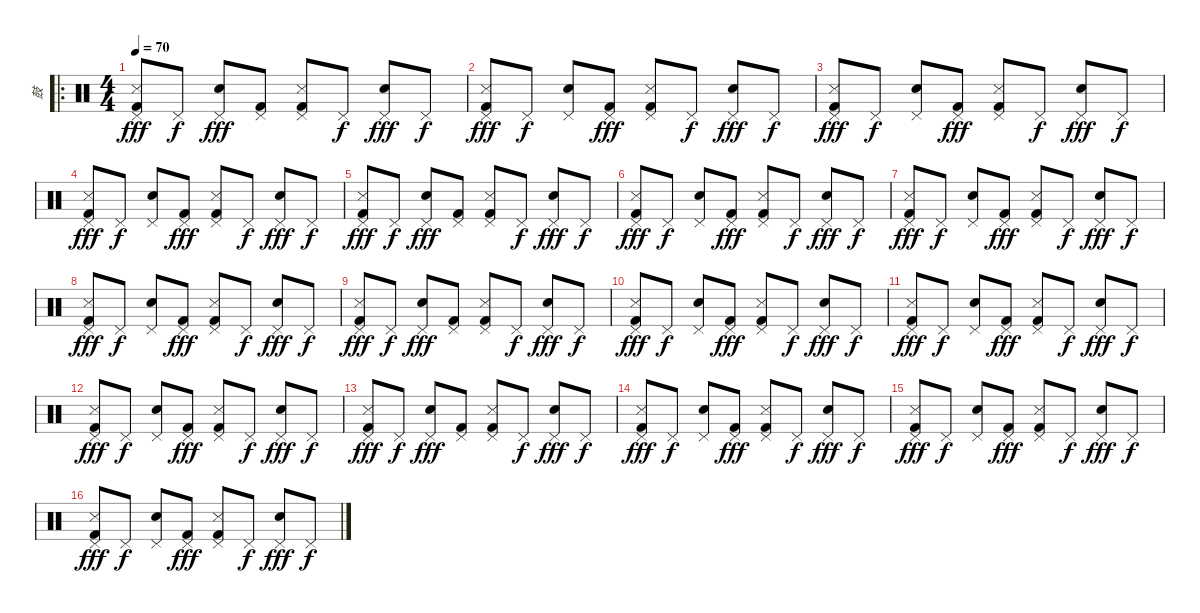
\track ("鼓" "鼓") {instrument percussion}
\staff {score}
\articulation defaults
\ro
\ts (4 4)
\tempo 70
\clef neutral
\ks c
("Snare (side stick) 3" "Pedal Hi-Hat (hit)" "Kick (hit) 2").8{dy fff} "Pedal Hi-Hat (hit)".8{dy f} ("Hand Clap (hit)" "Pedal Hi-Hat (hit)").8{dy fff} ("Pedal Hi-Hat (hit)" "Kick (hit) 2").8 ("Snare (side stick) 3" "Pedal Hi-Hat (hit)" "Kick (hit) 2").8 "Pedal Hi-Hat (hit)".8{dy f} ("Hand Clap (hit)" "Pedal Hi-Hat (hit)").8{dy fff} "Pedal Hi-Hat (hit)".8{dy f} |
("Snare (side stick) 3" "Pedal Hi-Hat (hit)" "Kick (hit) 2").8{dy fff} "Pedal Hi-Hat (hit)".8{dy f} ("Hand Clap (hit)" "Pedal Hi-Hat (hit)").8 ("Pedal Hi-Hat (hit)" "Kick (hit) 2").8{dy fff} ("Snare (side stick) 3" "Pedal Hi-Hat (hit)" "Kick (hit) 2").8 "Pedal Hi-Hat (hit)".8{dy f} ("Hand Clap (hit)" "Pedal Hi-Hat (hit)").8{dy fff} "Pedal Hi-Hat (hit)".8{dy f} |
("Snare (side stick) 3" "Pedal Hi-Hat (hit)" "Kick (hit) 2").8{dy fff} "Pedal Hi-Hat (hit)".8{dy f} ("Hand Clap (hit)" "Pedal Hi-Hat (hit)").8 ("Pedal Hi-Hat (hit)" "Kick (hit) 2").8{dy fff} ("Snare (side stick) 3" "Pedal Hi-Hat (hit)" "Kick (hit) 2").8 "Pedal Hi-Hat (hit)".8{dy f} ("Hand Clap (hit)" "Pedal Hi-Hat (hit)").8{dy fff} "Pedal Hi-Hat (hit)".8{dy f} |
("Snare (side stick) 3" "Pedal Hi-Hat (hit)" "Kick (hit) 2").8{dy fff} "Pedal Hi-Hat (hit)".8{dy f} ("Hand Clap (hit)" "Pedal Hi-Hat (hit)").8 ("Pedal Hi-Hat (hit)" "Kick (hit) 2").8{dy fff} ("Snare (side stick) 3" "Pedal Hi-Hat (hit)" "Kick (hit) 2").8 "Pedal Hi-Hat (hit)".8{dy f} ("Hand Clap (hit)" "Pedal Hi-Hat (hit)").8{dy fff} "Pedal Hi-Hat (hit)".8{dy f} |
("Snare (side stick) 3" "Pedal Hi-Hat (hit)" "Kick (hit) 2").8{dy fff} "Pedal Hi-Hat (hit)".8{dy f} ("Hand Clap (hit)" "Pedal Hi-Hat (hit)").8{dy fff} ("Pedal Hi-Hat (hit)" "Kick (hit) 2").8 ("Snare (side stick) 3" "Pedal Hi-Hat (hit)" "Kick (hit) 2").8 "Pedal Hi-Hat (hit)".8{dy f} ("Hand Clap (hit)" "Pedal Hi-Hat (hit)").8{dy fff} "Pedal Hi-Hat (hit)".8{dy f} |
("Snare (side stick) 3" "Pedal Hi-Hat (hit)" "Kick (hit) 2").8{dy fff} "Pedal Hi-Hat (hit)".8{dy f} ("Hand Clap (hit)" "Pedal Hi-Hat (hit)").8 ("Pedal Hi-Hat (hit)" "Kick (hit) 2").8{dy fff} ("Snare (side stick) 3" "Pedal Hi-Hat (hit)" "Kick (hit) 2").8 "Pedal Hi-Hat (hit)".8{dy f} ("Hand Clap (hit)" "Pedal Hi-Hat (hit)").8{dy fff} "Pedal Hi-Hat (hit)".8{dy f} |
("Snare (side stick) 3" "Pedal Hi-Hat (hit)" "Kick (hit) 2").8{dy fff} "Pedal Hi-Hat (hit)".8{dy f} ("Hand Clap (hit)" "Pedal Hi-Hat (hit)").8 ("Pedal Hi-Hat (hit)" "Kick (hit) 2").8{dy fff} ("Snare (side stick) 3" "Pedal Hi-Hat (hit)" "Kick (hit) 2").8 "Pedal Hi-Hat (hit)".8{dy f} ("Hand Clap (hit)" "Pedal Hi-Hat (hit)").8{dy fff} "Pedal Hi-Hat (hit)".8{dy f} |
("Snare (side stick) 3" "Pedal Hi-Hat (hit)" "Kick (hit) 2").8{dy fff} "Pedal Hi-Hat (hit)".8{dy f} ("Hand Clap (hit)" "Pedal Hi-Hat (hit)").8 ("Pedal Hi-Hat (hit)" "Kick (hit) 2").8{dy fff} ("Snare (side stick) 3" "Pedal Hi-Hat (hit)" "Kick (hit) 2").8 "Pedal Hi-Hat (hit)".8{dy f} ("Hand Clap (hit)" "Pedal Hi-Hat (hit)").8{dy fff} "Pedal Hi-Hat (hit)".8{dy f} |
("Snare (side stick) 3" "Pedal Hi-Hat (hit)" "Kick (hit) 2").8{dy fff} "Pedal Hi-Hat (hit)".8{dy f} ("Hand Clap (hit)" "Pedal Hi-Hat (hit)").8{dy fff} ("Pedal Hi-Hat (hit)" "Kick (hit) 2").8 ("Snare (side stick) 3" "Pedal Hi-Hat (hit)" "Kick (hit) 2").8 "Pedal Hi-Hat (hit)".8{dy f} ("Hand Clap (hit)" "Pedal Hi-Hat (hit)").8{dy fff} "Pedal Hi-Hat (hit)".8{dy f} |
("Snare (side stick) 3" "Pedal Hi-Hat (hit)" "Kick (hit) 2").8{dy fff} "Pedal Hi-Hat (hit)".8{dy f} ("Hand Clap (hit)" "Pedal Hi-Hat (hit)").8 ("Pedal Hi-Hat (hit)" "Kick (hit) 2").8{dy fff} ("Snare (side stick) 3" "Pedal Hi-Hat (hit)" "Kick (hit) 2").8 "Pedal Hi-Hat (hit)".8{dy f} ("Hand Clap (hit)" "Pedal Hi-Hat (hit)").8{dy fff} "Pedal Hi-Hat (hit)".8{dy f} |
("Snare (side stick) 3" "Pedal Hi-Hat (hit)" "Kick (hit) 2").8{dy fff} "Pedal Hi-Hat (hit)".8{dy f} ("Hand Clap (hit)" "Pedal Hi-Hat (hit)").8 ("Pedal Hi-Hat (hit)" "Kick (hit) 2").8{dy fff} ("Snare (side stick) 3" "Pedal Hi-Hat (hit)" "Kick (hit) 2").8 "Pedal Hi-Hat (hit)".8{dy f} ("Hand Clap (hit)" "Pedal Hi-Hat (hit)").8{dy fff} "Pedal Hi-Hat (hit)".8{dy f} |
("Snare (side stick) 3" "Pedal Hi-Hat (hit)" "Kick (hit) 2").8{dy fff} "Pedal Hi-Hat (hit)".8{dy f} ("Hand Clap (hit)" "Pedal Hi-Hat (hit)").8 ("Pedal Hi-Hat (hit)" "Kick (hit) 2").8{dy fff} ("Snare (side stick) 3" "Pedal Hi-Hat (hit)" "Kick (hit) 2").8 "Pedal Hi-Hat (hit)".8{dy f} ("Hand Clap (hit)" "Pedal Hi-Hat (hit)").8{dy fff} "Pedal Hi-Hat (hit)".8{dy f} |
("Snare (side stick) 3" "Pedal Hi-Hat (hit)" "Kick (hit) 2").8{dy fff} "Pedal Hi-Hat (hit)".8{dy f} ("Hand Clap (hit)" "Pedal Hi-Hat (hit)").8{dy fff} ("Pedal Hi-Hat (hit)" "Kick (hit) 2").8 ("Snare (side stick) 3" "Pedal Hi-Hat (hit)" "Kick (hit) 2").8 "Pedal Hi-Hat (hit)".8{dy f} ("Hand Clap (hit)" "Pedal Hi-Hat (hit)").8{dy fff} "Pedal Hi-Hat (hit)".8{dy f} |
("Snare (side stick) 3" "Pedal Hi-Hat (hit)" "Kick (hit) 2").8{dy fff} "Pedal Hi-Hat (hit)".8{dy f} ("Hand Clap (hit)" "Pedal Hi-Hat (hit)").8 ("Pedal Hi-Hat (hit)" "Kick (hit) 2").8{dy fff} ("Snare (side stick) 3" "Pedal Hi-Hat (hit)" "Kick (hit) 2").8 "Pedal Hi-Hat (hit)".8{dy f} ("Hand Clap (hit)" "Pedal Hi-Hat (hit)").8{dy fff} "Pedal Hi-Hat (hit)".8{dy f} |
("Snare (side stick) 3" "Pedal Hi-Hat (hit)" "Kick (hit) 2").8{dy fff} "Pedal Hi-Hat (hit)".8{dy f} ("Hand Clap (hit)" "Pedal Hi-Hat (hit)").8 ("Pedal Hi-Hat (hit)" "Kick (hit) 2").8{dy fff} ("Snare (side stick) 3" "Pedal Hi-Hat (hit)" "Kick (hit) 2").8 "Pedal Hi-Hat (hit)".8{dy f} ("Hand Clap (hit)" "Pedal Hi-Hat (hit)").8{dy fff} "Pedal Hi-Hat (hit)".8{dy f} |
("Snare (side stick) 3" "Pedal Hi-Hat (hit)" "Kick (hit) 2").8{dy fff} "Pedal Hi-Hat (hit)".8{dy f} ("Hand Clap (hit)" "Pedal Hi-Hat (hit)").8 ("Pedal Hi-Hat (hit)" "Kick (hit) 2").8{dy fff} ("Snare (side stick) 3" "Pedal Hi-Hat (hit)" "Kick (hit) 2").8 "Pedal Hi-Hat (hit)".8{dy f} ("Hand Clap (hit)" "Pedal Hi-Hat (hit)").8{dy fff} "Pedal Hi-Hat (hit)".8{dy f}
